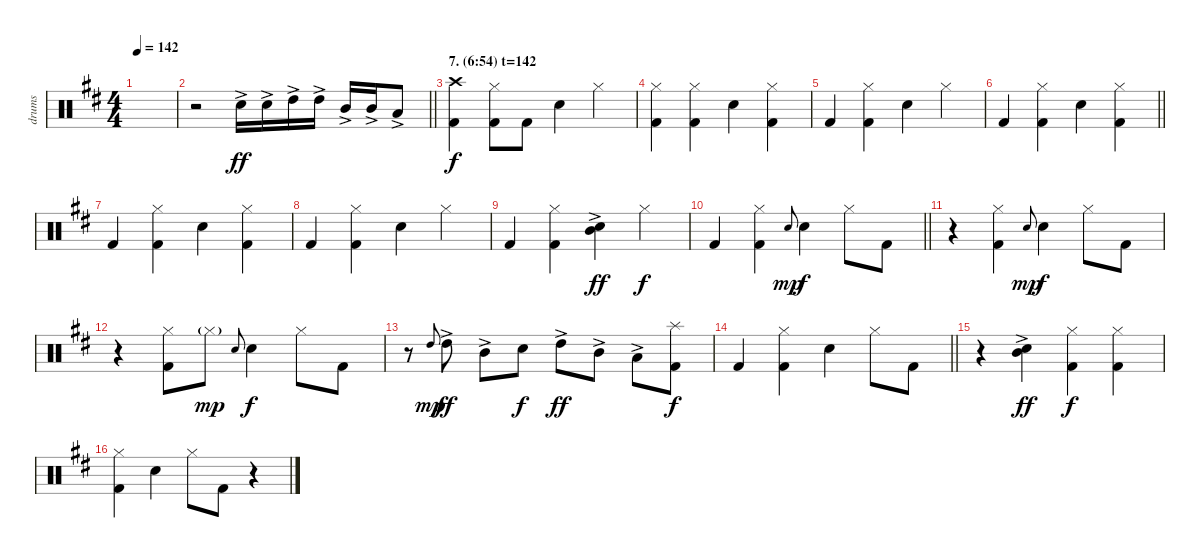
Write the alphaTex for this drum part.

\track ("drums" "drums") {instrument percussion}
\staff {score}
\articulation defaults
\ts (4 4)
\tempo 142
\clef neutral
\ks d
|
\barLineRight lightlight
r.2 "Electric Snare (hit)"{ac}.16{dy ff} "Electric Snare (hit)"{ac}.16 "High Tom (hit)"{ac}.16 "High Tom (hit)"{ac}.16 "Mid Tom (hit)"{ac}.16 "Mid Tom (hit)"{ac}.16 "Low Tom (hit)"{ac}.8 |
\section ("" "7. (6:54) t=142")
("Crash high (hit)" "Kick (hit) 2").4{dy f} ("Hi-Hat (closed)" "Kick (hit) 2").8 "Kick (hit) 2".8 "Electric Snare (hit)".4 "Hi-Hat (closed)".4 |
("Hi-Hat (closed)" "Kick (hit) 2").4 ("Hi-Hat (closed)" "Kick (hit) 2").4 "Electric Snare (hit)".4 ("Hi-Hat (closed)" "Kick (hit) 2").4 |
"Kick (hit) 2".4 ("Hi-Hat (closed)" "Kick (hit) 2").4 "Electric Snare (hit)".4 "Hi-Hat (closed)".4 |
\barLineRight lightlight "Kick (hit) 2".4
("Hi-Hat (closed)" "Kick (hit) 2").4 "Electric Snare (hit)".4 ("Hi-Hat (closed)" "Kick (hit) 2").4 |
"Kick (hit) 2".4 ("Hi-Hat (closed)" "Kick (hit) 2").4 "Electric Snare (hit)".4 ("Hi-Hat (closed)" "Kick (hit) 2").4 |
"Kick (hit) 2".4 ("Hi-Hat (closed)" "Kick (hit) 2").4 "Electric Snare (hit)".4 "Hi-Hat (closed)".4 |
"Kick (hit) 2".4 ("Hi-Hat (closed)" "Kick (hit) 2").4 ("Mid Tom (hit)"{ac} "Electric Snare (hit)").4{dy ff} "Hi-Hat (closed)".4{dy f} |
\barLineRight lightlight "Kick (hit) 2".4
("Hi-Hat (closed)" "Kick (hit) 2").4 "Electric Snare (hit)".8{gr onbeat dy mp} "Electric Snare (hit)".4{dy f} "Hi-Hat (closed)".8 "Kick (hit) 2".8 |
r.4 ("Hi-Hat (closed)" "Kick (hit) 2").4 "Electric Snare (hit)".8{gr onbeat dy mp} "Electric Snare (hit)".4{dy f} "Hi-Hat (closed)".8 "Kick (hit) 2".8 |
r.4 ("Hi-Hat (closed)" "Kick (hit) 2").8 "Hi-Hat (closed)"{g}.8{dy mp} "Electric Snare (hit)".8{gr onbeat} "Electric Snare (hit)".4{dy f} "Hi-Hat (closed)".8 "Kick (hit) 2".8 |
r.8 "High Tom (hit)".8{gr onbeat dy mp} "High Tom (hit)"{ac}.8{dy ff} "Mid Tom (hit)"{ac}.8 "Electric Snare (hit)".8{dy f} "High Tom (hit)"{ac}.8{dy ff} "Mid Tom (hit)"{ac}.8 "Low Tom (hit)"{ac}.8 ("Splash (hit)" "Kick (hit) 2").8{dy f} |
\barLineRight lightlight "Kick (hit) 2".4
("Hi-Hat (closed)" "Kick (hit) 2").4 "Electric Snare (hit)".4 "Hi-Hat (closed)".8 "Kick (hit) 2".8 |
r.4 ("Mid Tom (hit)"{ac} "Electric Snare (hit)").4{dy ff} ("Hi-Hat (closed)" "Kick (hit) 2").4{dy f} ("Hi-Hat (closed)" "Kick (hit) 2").4 |
("Hi-Hat (closed)" "Kick (hit) 2").4 "Electric Snare (hit)".4 "Hi-Hat (closed)".8 "Kick (hit) 2".8 r.4
